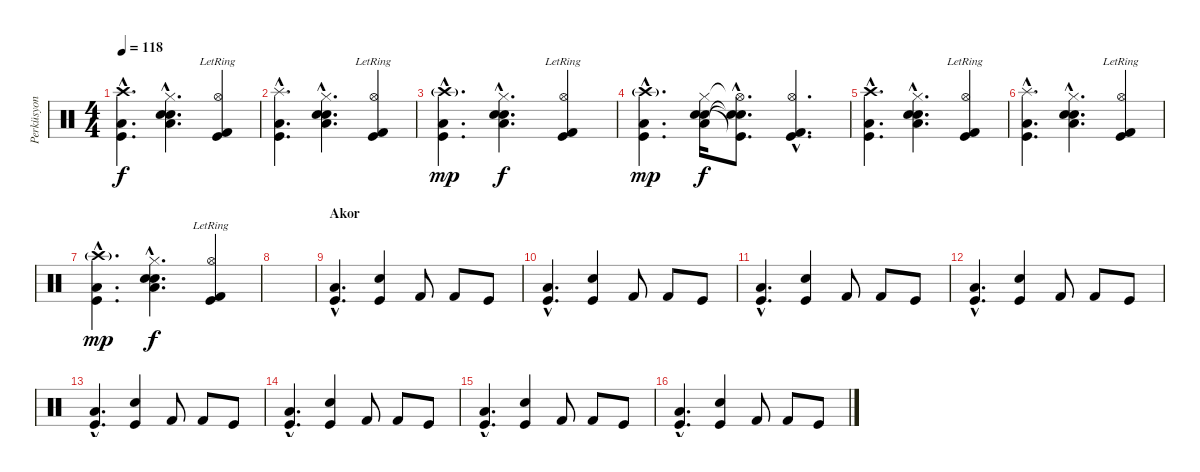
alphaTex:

\track ("Perküsyon" "Perküsyon") {instrument percussion}
\staff {score}
\articulation defaults
\ts (4 4)
\tempo 118
\clef neutral
\ks c
("Crash high (hit)"{hac} "Low Tom (hit)"{hac} "Kick (hit)"{hac}).4{d dy f} ("Low Floor Tom (hit)"{hac} "Hi-Hat (closed)"{hac} "Snare (hit)"{hac} "Electric Snare (hit)"{hac}).4{d} ("Hi-Hat (open)"{lr} "Kick (hit) 2" "Kick (hit)").4 |
("Splash (hit)"{hac} "Low Tom (hit)"{hac} "Kick (hit)"{hac}).4{d} ("Low Floor Tom (hit)"{hac} "Hi-Hat (closed)"{hac} "Snare (hit)"{hac} "Electric Snare (hit)"{hac}).4{d} ("Hi-Hat (open)"{lr} "Kick (hit) 2" "Kick (hit)").4 |
("Crash high (hit)"{g hac} "Low Tom (hit)"{hac} "Kick (hit)"{hac}).4{d dy mp} ("Low Floor Tom (hit)"{hac} "Hi-Hat (closed)"{hac} "Snare (hit)"{hac} "Electric Snare (hit)"{hac}).4{d dy f} ("Hi-Hat (open)"{lr} "Kick (hit) 2" "Kick (hit)").4 |
("Crash high (hit)"{g} "Low Tom (hit)"{hac} "Kick (hit)"{hac}).4{d dy mp} ("Low Floor Tom (hit)" "Hi-Hat (closed)" "Snare (hit)" "Electric Snare (hit)").16{dy f} ("Snare (hit)"{hac t} "Hi-Hat (open)"{hac t} "Snare (hit)"{hac t} "Kick (hit)"{hac t}).8{d} ("Hi-Hat (open)"{hac} "Kick (hit)"{hac} "Kick (hit) 2"{hac}).4{d} |
("Crash high (hit)"{hac} "Low Tom (hit)"{hac} "Kick (hit)"{hac}).4{d} ("Low Floor Tom (hit)"{hac} "Hi-Hat (closed)"{hac} "Snare (hit)"{hac} "Electric Snare (hit)"{hac}).4{d} ("Hi-Hat (open)"{lr} "Kick (hit) 2" "Kick (hit)").4 |
("Splash (hit)"{hac} "Low Tom (hit)"{hac} "Kick (hit)"{hac}).4{d} ("Low Floor Tom (hit)"{hac} "Hi-Hat (closed)"{hac} "Snare (hit)"{hac} "Electric Snare (hit)"{hac}).4{d} ("Hi-Hat (open)"{lr} "Kick (hit) 2" "Kick (hit)").4 |
("Crash high (hit)"{g hac} "Low Tom (hit)"{hac} "Kick (hit)"{hac}).4{d dy mp} ("Low Floor Tom (hit)"{hac} "Hi-Hat (closed)"{hac} "Snare (hit)"{hac} "Electric Snare (hit)"{hac}).4{d dy f} ("Hi-Hat (open)"{lr} "Kick (hit) 2" "Kick (hit)").4 |
|
\section ("" "Akor")
("Low Floor Tom (hit)"{hac} "Kick (hit)"{hac}).4{d} ("Electric Snare (hit)" "Kick (hit)").4 "Kick (hit) 2".8 "Kick (hit) 2".8 "Kick (hit)".8 |
("Low Floor Tom (hit)"{hac} "Kick (hit)"{hac}).4{d} ("Electric Snare (hit)" "Kick (hit)").4 "Kick (hit) 2".8 "Kick (hit) 2".8 "Kick (hit)".8 |
("Low Floor Tom (hit)"{hac} "Kick (hit)"{hac}).4{d} ("Electric Snare (hit)" "Kick (hit)").4 "Kick (hit) 2".8 "Kick (hit) 2".8 "Kick (hit)".8 |
("Low Floor Tom (hit)"{hac} "Kick (hit)"{hac}).4{d} ("Electric Snare (hit)" "Kick (hit)").4 "Kick (hit) 2".8 "Kick (hit) 2".8 "Kick (hit)".8 |
("Low Floor Tom (hit)"{hac} "Kick (hit)"{hac}).4{d} ("Electric Snare (hit)" "Kick (hit)").4 "Kick (hit) 2".8 "Kick (hit) 2".8 "Kick (hit)".8 |
("Low Floor Tom (hit)"{hac} "Kick (hit)"{hac}).4{d} ("Electric Snare (hit)" "Kick (hit)").4 "Kick (hit) 2".8 "Kick (hit) 2".8 "Kick (hit)".8 |
("Low Floor Tom (hit)"{hac} "Kick (hit)"{hac}).4{d} ("Electric Snare (hit)" "Kick (hit)").4 "Kick (hit) 2".8 "Kick (hit) 2".8 "Kick (hit)".8 |
("Low Floor Tom (hit)"{hac} "Kick (hit)"{hac}).4{d} ("Electric Snare (hit)" "Kick (hit)").4 "Kick (hit) 2".8 "Kick (hit) 2".8 "Kick (hit)".8
